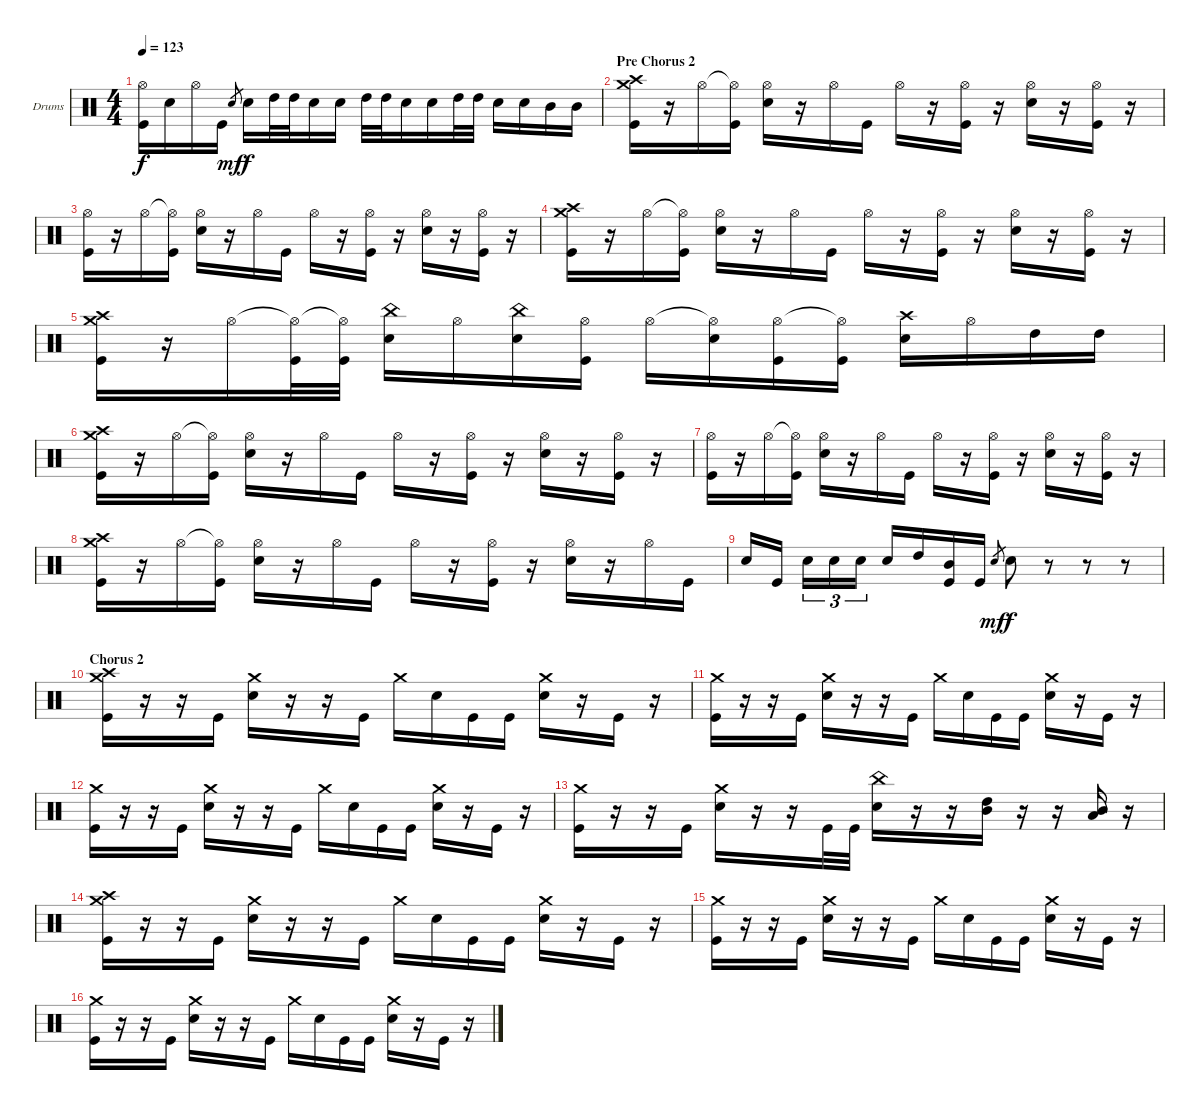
\bracketExtendMode groupsimilarinstruments
\firstSystemTrackNameOrientation horizontal
\otherSystemsTrackNameOrientation horizontal
\track ("Drumkit" "Drums") {instrument percussion}
\staff {score}
\articulation defaults
\ts (4 4)
\tempo 123
\clef neutral
\ks c
("Hi-Hat (open)" "Kick (hit)").16{dy f} "Snare (hit) 2".16 "Hi-Hat (open)".16 "Kick (hit)".16 "Snare (hit) 2".8{gr dy mf} "Snare (hit) 2".16{dy f} "High Tom (hit)".32 "High Tom (hit)".32 "Snare (hit) 2".16 "Snare (hit) 2".16 "High Tom (hit)".32 "High Tom (hit)".32 "Snare (hit) 2".16 "Snare (hit) 2".16 "High Tom (hit)".32 "High Tom (hit)".32 "Snare (hit) 2".16 "Snare (hit) 2".16 "Mid Tom (hit)".16 "Mid Tom (hit)".16 |
\section ("" "Pre Chorus 2")
("Crash medium (hit)" "Crash high (hit)" "Kick (hit)").16 r.16 "Hi-Hat (open)".16 ("Hi-Hat (open)"{t} "Kick (hit)").16 ("Hi-Hat (open)" "Snare (hit) 2").16 r.16 "Hi-Hat (open)".16 "Kick (hit)".16 "Hi-Hat (open)".16 r.16 ("Hi-Hat (open)" "Kick (hit)").16 r.16 ("Hi-Hat (open)" "Snare (hit) 2").16 r.16 ("Hi-Hat (open)" "Kick (hit)").16 r.16 |
("Hi-Hat (open)" "Kick (hit)").16 r.16 "Hi-Hat (open)".16 ("Hi-Hat (open)"{t} "Kick (hit)").16 ("Hi-Hat (open)" "Snare (hit) 2").16 r.16 "Hi-Hat (open)".16 "Kick (hit)".16 "Hi-Hat (open)".16 r.16 ("Hi-Hat (open)" "Kick (hit)").16 r.16 ("Hi-Hat (open)" "Snare (hit) 2").16 r.16 ("Hi-Hat (open)" "Kick (hit)").16 r.16 |
("Crash medium (hit)" "Crash high (hit)" "Kick (hit)").16 r.16 "Hi-Hat (open)".16 ("Hi-Hat (open)"{t} "Kick (hit)").16 ("Hi-Hat (open)" "Snare (hit) 2").16 r.16 "Hi-Hat (open)".16 "Kick (hit)".16 "Hi-Hat (open)".16 r.16 ("Hi-Hat (open)" "Kick (hit)").16 r.16 ("Hi-Hat (open)" "Snare (hit) 2").16 r.16 ("Hi-Hat (open)" "Kick (hit)").16 r.16 |
("Crash medium (hit)" "Crash high (hit)" "Kick (hit)").16 r.16 "Hi-Hat (open)".16 ("Hi-Hat (open)"{t} "Kick (hit)").32 ("Hi-Hat (open)"{t} "Kick (hit)").32 ("China (hit)" "Snare (hit) 2").16 "Hi-Hat (open)".16 ("China (hit)" "Snare (hit) 2").16 ("Hi-Hat (open)" "Kick (hit)").16 "Hi-Hat (open)".16 ("Hi-Hat (open)"{t} "Snare (hit) 2").16 ("Hi-Hat (open)" "Kick (hit)").16 ("Hi-Hat (open)"{t} "Kick (hit)").16 ("Crash high (hit)" "Snare (hit) 2").16 "Hi-Hat (open)".16 "High Tom (hit)".16 "High Tom (hit)".16 |
("Crash medium (hit)" "Crash high (hit)" "Kick (hit)").16 r.16 "Hi-Hat (open)".16 ("Hi-Hat (open)"{t} "Kick (hit)").16 ("Hi-Hat (open)" "Snare (hit) 2").16 r.16 "Hi-Hat (open)".16 "Kick (hit)".16 "Hi-Hat (open)".16 r.16 ("Hi-Hat (open)" "Kick (hit)").16 r.16 ("Hi-Hat (open)" "Snare (hit) 2").16 r.16 ("Hi-Hat (open)" "Kick (hit)").16 r.16 |
("Hi-Hat (open)" "Kick (hit)").16 r.16 "Hi-Hat (open)".16 ("Hi-Hat (open)"{t} "Kick (hit)").16 ("Hi-Hat (open)" "Snare (hit) 2").16 r.16 "Hi-Hat (open)".16 "Kick (hit)".16 "Hi-Hat (open)".16 r.16 ("Hi-Hat (open)" "Kick (hit)").16 r.16 ("Hi-Hat (open)" "Snare (hit) 2").16 r.16 ("Hi-Hat (open)" "Kick (hit)").16 r.16 |
("Crash medium (hit)" "Crash high (hit)" "Kick (hit)").16 r.16 "Hi-Hat (open)".16 ("Hi-Hat (open)"{t} "Kick (hit)").16 ("Hi-Hat (open)" "Snare (hit) 2").16 r.16 "Hi-Hat (open)".16 "Kick (hit)".16 "Hi-Hat (open)".16 r.16 ("Hi-Hat (open)" "Kick (hit)").16 r.16 ("Hi-Hat (open)" "Snare (hit) 2").16 r.16 "Hi-Hat (open)".16 "Kick (hit)".16 |
"Snare (hit) 2".16 "Kick (hit)".16 "Snare (hit) 2".16{tu (3 2)} "Snare (hit) 2".16{tu (3 2)} "Snare (hit) 2".16{tu (3 2)} "Snare (hit) 2".16 "High Tom (hit)".16 ("Mid Tom (hit)" "Kick (hit)").16 "Kick (hit)".16 "Snare (hit) 2".8{gr dy mf} "Snare (hit) 2".8{dy f} r.8 r.8 r.8 |
\section ("" "Chorus 2")
("Crash medium (hit)" "Crash high (hit)" "Kick (hit)").16 r.16 r.16 "Kick (hit)".16 ("Crash medium (hit)" "Snare (hit) 2").16 r.16 r.16 "Kick (hit)".16 "Crash medium (hit)".16 "Snare (hit) 2".16 "Kick (hit)".16 "Kick (hit)".16 ("Crash medium (hit)" "Snare (hit) 2").16 r.16 "Kick (hit)".16 r.16 |
("Crash medium (hit)" "Kick (hit)").16 r.16 r.16 "Kick (hit)".16 ("Crash medium (hit)" "Snare (hit) 2").16 r.16 r.16 "Kick (hit)".16 "Crash medium (hit)".16 "Snare (hit) 2".16 "Kick (hit)".16 "Kick (hit)".16 ("Crash medium (hit)" "Snare (hit) 2").16 r.16 "Kick (hit)".16 r.16 |
("Crash medium (hit)" "Kick (hit)").16 r.16 r.16 "Kick (hit)".16 ("Crash medium (hit)" "Snare (hit) 2").16 r.16 r.16 "Kick (hit)".16 "Crash medium (hit)".16 "Snare (hit) 2".16 "Kick (hit)".16 "Kick (hit)".16 ("Crash medium (hit)" "Snare (hit) 2").16 r.16 "Kick (hit)".16 r.16 |
("Crash medium (hit)" "Kick (hit)").16 r.16 r.16 "Kick (hit)".16 ("Crash medium (hit)" "Snare (hit) 2").16 r.16 r.16 "Kick (hit)".32 "Kick (hit)".32 ("China (hit)" "Snare (hit) 2").16 r.16 r.16 ("High Tom (hit)" "Mid Tom (hit)").16 r.16 r.16 ("Mid Tom (hit)" "Low Tom (hit)").16 r.16 |
("Crash medium (hit)" "Crash high (hit)" "Kick (hit)").16 r.16 r.16 "Kick (hit)".16 ("Crash medium (hit)" "Snare (hit) 2").16 r.16 r.16 "Kick (hit)".16 "Crash medium (hit)".16 "Snare (hit) 2".16 "Kick (hit)".16 "Kick (hit)".16 ("Crash medium (hit)" "Snare (hit) 2").16 r.16 "Kick (hit)".16 r.16 |
("Crash medium (hit)" "Kick (hit)").16 r.16 r.16 "Kick (hit)".16 ("Crash medium (hit)" "Snare (hit) 2").16 r.16 r.16 "Kick (hit)".16 "Crash medium (hit)".16 "Snare (hit) 2".16 "Kick (hit)".16 "Kick (hit)".16 ("Crash medium (hit)" "Snare (hit) 2").16 r.16 "Kick (hit)".16 r.16 |
("Crash medium (hit)" "Kick (hit)").16 r.16 r.16 "Kick (hit)".16 ("Crash medium (hit)" "Snare (hit) 2").16 r.16 r.16 "Kick (hit)".16 "Crash medium (hit)".16 "Snare (hit) 2".16 "Kick (hit)".16 "Kick (hit)".16 ("Crash medium (hit)" "Snare (hit) 2").16 r.16 "Kick (hit)".16 r.16
